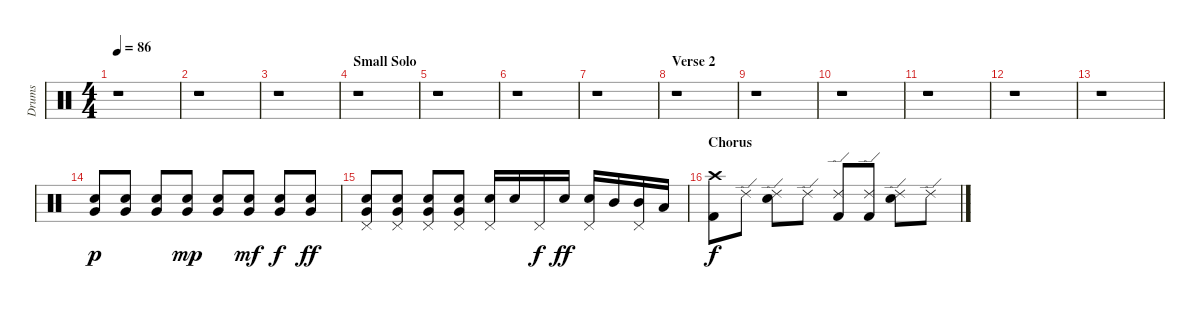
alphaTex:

\track ("Drums" "Drums") {instrument percussion}
\staff {score}
\articulation defaults
\ts (4 4)
\tempo 86
\clef neutral
\ks c
r.1{dy p} |
r.1 |
r.1 |
\section ("" "Small Solo")
r.1 |
r.1 |
r.1 |
r.1 |
\section ("" "Verse 2")
r.1 |
r.1 |
r.1 |
r.1 |
r.1 |
r.1 |
("Snare (hit) 2" "Very Low Tom (hit)").8 ("Snare (hit) 2" "Very Low Tom (hit)").8 ("Snare (hit) 2" "Very Low Tom (hit)").8 ("Snare (hit) 2" "Very Low Tom (hit)").8{dy mp} ("Snare (hit) 2" "Very Low Tom (hit)").8 ("Snare (hit) 2" "Very Low Tom (hit)").8{dy mf} ("Snare (hit) 2" "Very Low Tom (hit)").8{dy f} ("Snare (hit) 2" "Very Low Tom (hit)").8{dy ff} |
("Pedal Hi-Hat (hit)" "Snare (hit) 2" "Very Low Tom (hit)").8 ("Pedal Hi-Hat (hit)" "Snare (hit) 2" "Very Low Tom (hit)").8 ("Pedal Hi-Hat (hit)" "Snare (hit) 2" "Very Low Tom (hit)").8 ("Pedal Hi-Hat (hit)" "Snare (hit) 2" "Very Low Tom (hit)").8 ("Pedal Hi-Hat (hit)" "Snare (hit) 2").16 "Snare (hit) 2".16 "Pedal Hi-Hat (hit)".16{dy f} "Snare (hit) 2".16{dy ff} ("Pedal Hi-Hat (hit)" "Snare (hit) 2").16 "Mid Tom (hit)".16 ("Pedal Hi-Hat (hit)" "Mid Tom (hit)").16 "Low Tom (hit)".16 |
\section ("" "Chorus")
("Crash high (hit)" "Kick (hit) 2").8{dy f} "Ride (edge) 2".8 ("Ride (edge) 2" "Snare (hit) 2").8 "Ride (edge) 2".8 ("Ride (edge) 2" "Kick (hit) 2").8 ("Ride (edge) 2" "Kick (hit) 2").8 ("Ride (edge) 2" "Snare (hit) 2").8 "Ride (edge) 2".8
